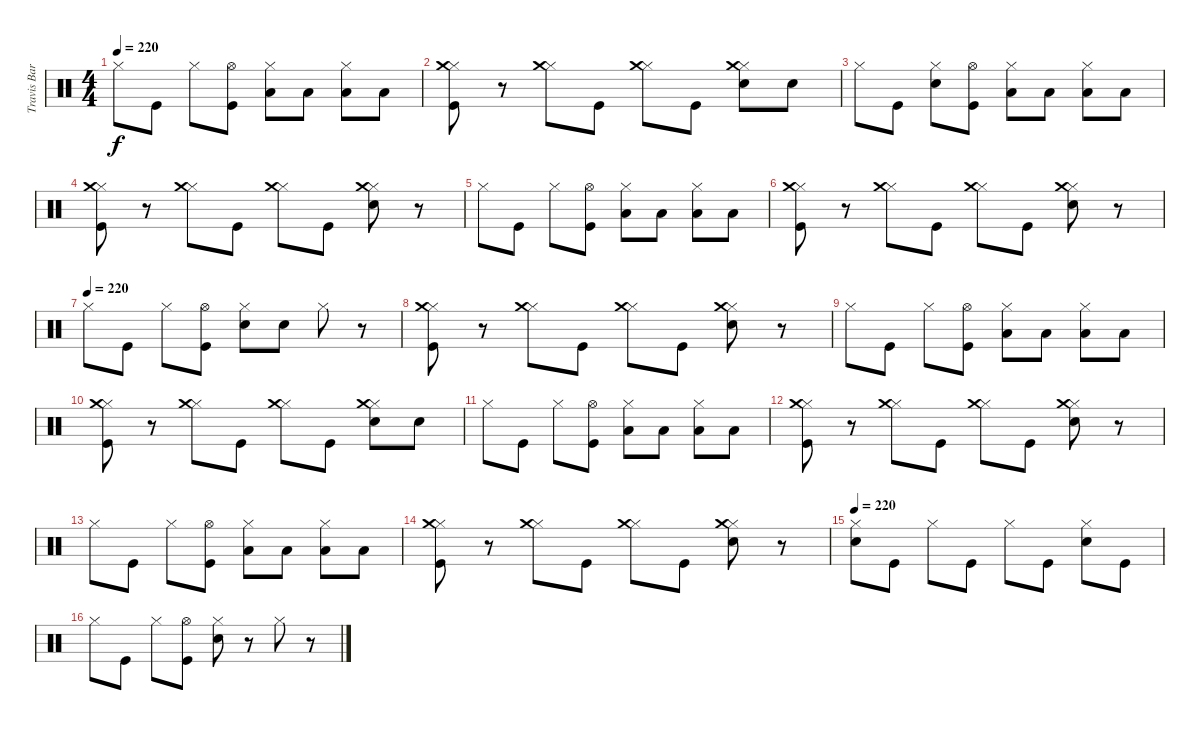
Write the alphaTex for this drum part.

\track ("Travis Barker" "Travis Bar") {instrument percussion}
\staff {score}
\articulation defaults
\ts (4 4)
\tempo 220
\clef neutral
\ks c "Hi-Hat (closed)".8{dy f} "Kick (hit)".8 "Hi-Hat (closed)".8
("Kick (hit)" "Hi-Hat (open)").8 ("Low Tom (hit)" "Hi-Hat (closed)").8 "Low Tom (hit)".8 ("Low Floor Tom (hit)" "Hi-Hat (closed)").8 "Low Floor Tom (hit)".8 |
("Kick (hit)" "Hi-Hat (closed)" "Crash medium (hit)").8 r.8 ("Hi-Hat (closed)" "Crash medium (hit)").8 "Kick (hit)".8 ("Hi-Hat (closed)" "Crash medium (hit)").8 "Kick (hit)".8 ("Electric Snare (hit)" "Hi-Hat (closed)" "Crash medium (hit)").8 "Electric Snare (hit)".8 |
"Hi-Hat (closed)".8 "Kick (hit)".8 ("Electric Snare (hit)" "Hi-Hat (closed)").8 ("Kick (hit)" "Hi-Hat (open)").8 ("Low Tom (hit)" "Hi-Hat (closed)").8 "Low Tom (hit)".8 ("Low Floor Tom (hit)" "Hi-Hat (closed)").8 "Low Floor Tom (hit)".8 |
("Kick (hit)" "Hi-Hat (closed)" "Crash medium (hit)").8 r.8 ("Hi-Hat (closed)" "Crash medium (hit)").8 "Kick (hit)".8 ("Hi-Hat (closed)" "Crash medium (hit)").8 "Kick (hit)".8 ("Electric Snare (hit)" "Hi-Hat (closed)" "Crash medium (hit)").8 r.8 |
"Hi-Hat (closed)".8 "Kick (hit)".8 "Hi-Hat (closed)".8 ("Kick (hit)" "Hi-Hat (open)").8 ("Low Tom (hit)" "Hi-Hat (closed)").8 "Low Tom (hit)".8 ("Low Floor Tom (hit)" "Hi-Hat (closed)").8 "Low Floor Tom (hit)".8 |
("Kick (hit)" "Hi-Hat (closed)" "Crash medium (hit)").8 r.8 ("Hi-Hat (closed)" "Crash medium (hit)").8 "Kick (hit)".8 ("Hi-Hat (closed)" "Crash medium (hit)").8 "Kick (hit)".8 ("Electric Snare (hit)" "Hi-Hat (closed)" "Crash medium (hit)").8 r.8 |
\tempo (220)
"Hi-Hat (closed)".8 "Kick (hit)".8 "Hi-Hat (closed)".8 ("Kick (hit)" "Hi-Hat (open)").8 ("Electric Snare (hit)" "Hi-Hat (closed)").8 "Electric Snare (hit)".8 "Hi-Hat (closed)".8 r.8 |
("Kick (hit)" "Hi-Hat (closed)" "Crash medium (hit)").8 r.8 ("Hi-Hat (closed)" "Crash medium (hit)").8 "Kick (hit)".8 ("Hi-Hat (closed)" "Crash medium (hit)").8 "Kick (hit)".8 ("Electric Snare (hit)" "Hi-Hat (closed)" "Crash medium (hit)").8 r.8 |
"Hi-Hat (closed)".8 "Kick (hit)".8 "Hi-Hat (closed)".8 ("Kick (hit)" "Hi-Hat (open)").8 ("Low Tom (hit)" "Hi-Hat (closed)").8 "Low Tom (hit)".8 ("Low Floor Tom (hit)" "Hi-Hat (closed)").8 "Low Floor Tom (hit)".8 |
("Kick (hit)" "Hi-Hat (closed)" "Crash medium (hit)").8 r.8 ("Hi-Hat (closed)" "Crash medium (hit)").8 "Kick (hit)".8 ("Hi-Hat (closed)" "Crash medium (hit)").8 "Kick (hit)".8 ("Electric Snare (hit)" "Hi-Hat (closed)" "Crash medium (hit)").8 "Electric Snare (hit)".8 |
"Hi-Hat (closed)".8 "Kick (hit)".8 "Hi-Hat (closed)".8 ("Kick (hit)" "Hi-Hat (open)").8 ("Low Tom (hit)" "Hi-Hat (closed)").8 "Low Tom (hit)".8 ("Low Floor Tom (hit)" "Hi-Hat (closed)").8 "Low Floor Tom (hit)".8 |
("Kick (hit)" "Hi-Hat (closed)" "Crash medium (hit)").8 r.8 ("Hi-Hat (closed)" "Crash medium (hit)").8 "Kick (hit)".8 ("Hi-Hat (closed)" "Crash medium (hit)").8 "Kick (hit)".8 ("Electric Snare (hit)" "Hi-Hat (closed)" "Crash medium (hit)").8 r.8 |
"Hi-Hat (closed)".8 "Kick (hit)".8 "Hi-Hat (closed)".8 ("Kick (hit)" "Hi-Hat (open)").8 ("Low Tom (hit)" "Hi-Hat (closed)").8 "Low Tom (hit)".8 ("Low Floor Tom (hit)" "Hi-Hat (closed)").8 "Low Floor Tom (hit)".8 |
("Kick (hit)" "Hi-Hat (closed)" "Crash medium (hit)").8 r.8 ("Hi-Hat (closed)" "Crash medium (hit)").8 "Kick (hit)".8 ("Hi-Hat (closed)" "Crash medium (hit)").8 "Kick (hit)".8 ("Electric Snare (hit)" "Hi-Hat (closed)" "Crash medium (hit)").8 r.8 |
\tempo 220
("Electric Snare (hit)" "Hi-Hat (closed)").8 "Kick (hit)".8 "Hi-Hat (closed)".8 "Kick (hit)".8 "Hi-Hat (closed)".8 "Kick (hit)".8 ("Electric Snare (hit)" "Hi-Hat (closed)").8 "Kick (hit)".8 |
"Hi-Hat (closed)".8 "Kick (hit)".8 "Hi-Hat (closed)".8 ("Kick (hit)" "Hi-Hat (open)").8 ("Electric Snare (hit)" "Hi-Hat (closed)").8 r.8 "Hi-Hat (closed)".8 r.8
